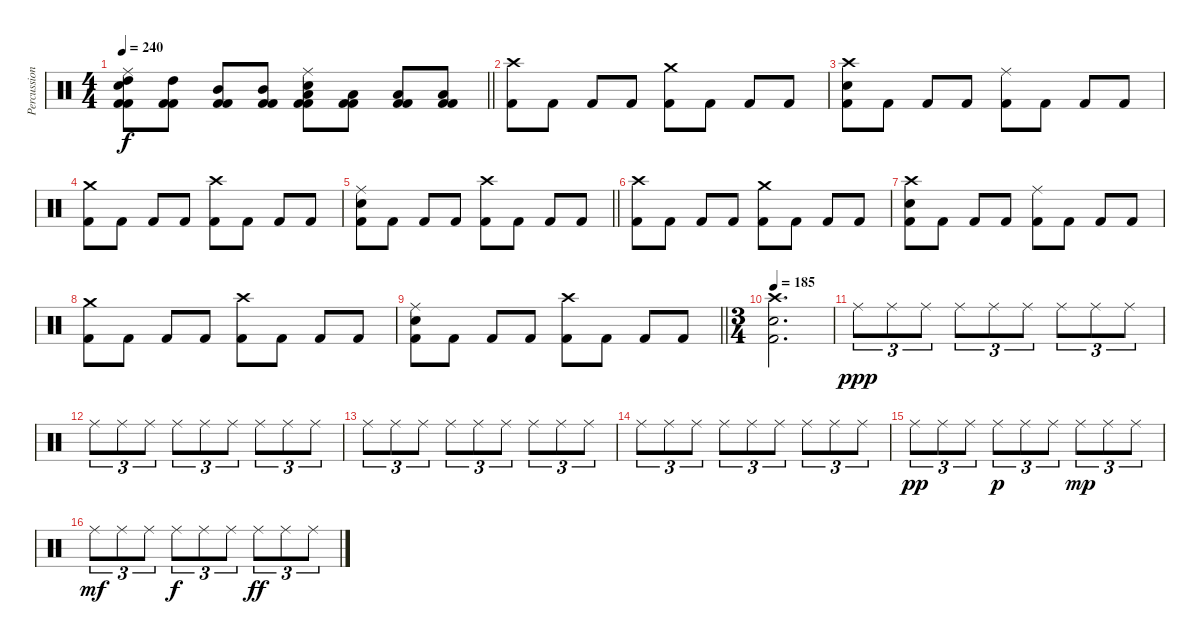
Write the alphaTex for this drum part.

\track ("Percussion" "Percussion") {instrument percussion}
\staff {score}
\articulation defaults
\ts (4 4)
\tempo 240
\clef neutral
\barLineRight lightlight
\ks c
("Ride (middle)" "Electric Snare (hit)" "High Tom (hit)" "Kick (hit) 2" "Kick (hit) 2").8{dy f} ("High Tom (hit)" "Kick (hit) 2" "Kick (hit) 2").8 ("Mid Tom (hit)" "Kick (hit) 2" "Kick (hit) 2").8 ("Mid Tom (hit)" "Kick (hit) 2" "Kick (hit) 2").8 ("Ride (middle)" "Electric Snare (hit)" "Low Tom (hit)" "Kick (hit) 2" "Kick (hit) 2").8 ("Low Tom (hit)" "Kick (hit) 2" "Kick (hit) 2").8 ("Low Floor Tom (hit)" "Kick (hit) 2" "Kick (hit) 2").8 ("Low Floor Tom (hit)" "Kick (hit) 2" "Kick (hit) 2").8 |
("Crash high (hit)" "Kick (hit) 2").8 "Kick (hit) 2".8 "Kick (hit) 2".8 "Kick (hit) 2".8 ("Crash medium (hit)" "Kick (hit) 2").8 "Kick (hit) 2".8 "Kick (hit) 2".8 "Kick (hit) 2".8 |
("Crash high (hit)" "Electric Snare (hit)" "Kick (hit) 2").8 "Kick (hit) 2".8 "Kick (hit) 2".8 "Kick (hit) 2".8 ("Ride (middle)" "Kick (hit) 2").8 "Kick (hit) 2".8 "Kick (hit) 2".8 "Kick (hit) 2".8 |
("Crash medium (hit)" "Kick (hit) 2").8 "Kick (hit) 2".8 "Kick (hit) 2".8 "Kick (hit) 2".8 ("Crash high (hit)" "Kick (hit) 2").8 "Kick (hit) 2".8 "Kick (hit) 2".8 "Kick (hit) 2".8 |
\barLineRight lightlight
("Ride (middle)" "Electric Snare (hit)" "Kick (hit) 2").8 "Kick (hit) 2".8 "Kick (hit) 2".8 "Kick (hit) 2".8 ("Crash high (hit)" "Kick (hit) 2").8 "Kick (hit) 2".8 "Kick (hit) 2".8 "Kick (hit) 2".8 |
("Crash high (hit)" "Kick (hit) 2").8 "Kick (hit) 2".8 "Kick (hit) 2".8 "Kick (hit) 2".8 ("Crash medium (hit)" "Kick (hit) 2").8 "Kick (hit) 2".8 "Kick (hit) 2".8 "Kick (hit) 2".8 |
("Crash high (hit)" "Electric Snare (hit)" "Kick (hit) 2").8 "Kick (hit) 2".8 "Kick (hit) 2".8 "Kick (hit) 2".8 ("Ride (middle)" "Kick (hit) 2").8 "Kick (hit) 2".8 "Kick (hit) 2".8 "Kick (hit) 2".8 |
("Crash medium (hit)" "Kick (hit) 2").8 "Kick (hit) 2".8 "Kick (hit) 2".8 "Kick (hit) 2".8 ("Crash high (hit)" "Kick (hit) 2").8 "Kick (hit) 2".8 "Kick (hit) 2".8 "Kick (hit) 2".8 |
\barLineRight lightlight
("Ride (middle)" "Electric Snare (hit)" "Kick (hit) 2").8 "Kick (hit) 2".8 "Kick (hit) 2".8 "Kick (hit) 2".8 ("Crash high (hit)" "Kick (hit) 2").8 "Kick (hit) 2".8 "Kick (hit) 2".8 "Kick (hit) 2".8 |
\ts (3 4)
\tempo 185
("Crash high (hit)" "Electric Snare (hit)" "Kick (hit) 2").2{d} |
"Ride (middle)".8{tu (3 2) dy ppp} "Ride (middle)".8{tu (3 2)} "Ride (middle)".8{tu (3 2)} "Ride (middle)".8{tu (3 2)} "Ride (middle)".8{tu (3 2)} "Ride (middle)".8{tu (3 2)} "Ride (middle)".8{tu (3 2)} "Ride (middle)".8{tu (3 2)} "Ride (middle)".8{tu (3 2)} |
"Ride (middle)".8{tu (3 2)} "Ride (middle)".8{tu (3 2)} "Ride (middle)".8{tu (3 2)} "Ride (middle)".8{tu (3 2)} "Ride (middle)".8{tu (3 2)} "Ride (middle)".8{tu (3 2)} "Ride (middle)".8{tu (3 2)} "Ride (middle)".8{tu (3 2)} "Ride (middle)".8{tu (3 2)} |
"Ride (middle)".8{tu (3 2)} "Ride (middle)".8{tu (3 2)} "Ride (middle)".8{tu (3 2)} "Ride (middle)".8{tu (3 2)} "Ride (middle)".8{tu (3 2)} "Ride (middle)".8{tu (3 2)} "Ride (middle)".8{tu (3 2)} "Ride (middle)".8{tu (3 2)} "Ride (middle)".8{tu (3 2)} |
"Ride (middle)".8{tu (3 2)} "Ride (middle)".8{tu (3 2)} "Ride (middle)".8{tu (3 2)} "Ride (middle)".8{tu (3 2)} "Ride (middle)".8{tu (3 2)} "Ride (middle)".8{tu (3 2)} "Ride (middle)".8{tu (3 2)} "Ride (middle)".8{tu (3 2)} "Ride (middle)".8{tu (3 2)} |
"Ride (middle)".8{tu (3 2) dy pp} "Ride (middle)".8{tu (3 2)} "Ride (middle)".8{tu (3 2)} "Ride (middle)".8{tu (3 2) dy p} "Ride (middle)".8{tu (3 2)} "Ride (middle)".8{tu (3 2)} "Ride (middle)".8{tu (3 2) dy mp} "Ride (middle)".8{tu (3 2)} "Ride (middle)".8{tu (3 2)} |
"Ride (middle)".8{tu (3 2) dy mf} "Ride (middle)".8{tu (3 2)} "Ride (middle)".8{tu (3 2)} "Ride (middle)".8{tu (3 2) dy f} "Ride (middle)".8{tu (3 2)} "Ride (middle)".8{tu (3 2)} "Ride (middle)".8{tu (3 2) dy ff} "Ride (middle)".8{tu (3 2)} "Ride (middle)".8{tu (3 2)}
